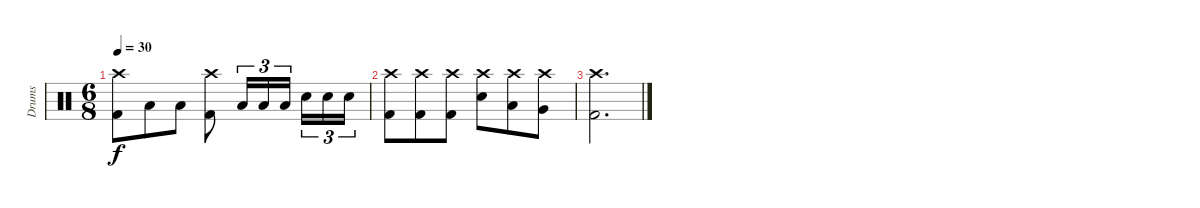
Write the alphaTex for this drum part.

\track ("Drums" "Drums") {instrument percussion}
\staff {score}
\articulation defaults
\ts (6 8)
\tempo 30
\clef neutral
\ks c
("Crash high (hit)" "Kick (hit) 2").8{dy f} "Low Tom (hit)".8 "Low Tom (hit)".8 ("Crash high (hit)" "Kick (hit) 2").8 "Low Tom (hit)".16{tu (3 2)} "Low Tom (hit)".16{tu (3 2)} "Low Tom (hit)".16{tu (3 2) beam splitsecondary} "Snare (hit) 2".16{tu (3 2)} "Snare (hit) 2".16{tu (3 2)} "Snare (hit) 2".16{tu (3 2)} |
("Crash high (hit)" "Kick (hit) 2").8 ("Crash high (hit)" "Kick (hit) 2").8 ("Crash high (hit)" "Kick (hit) 2").8 ("Crash high (hit)" "Snare (hit) 2").8 ("Crash high (hit)" "Low Tom (hit)").8 ("Crash high (hit)" "Very Low Tom (hit)").8 |
("Crash high (hit)" "Kick (hit) 2").2{d}
